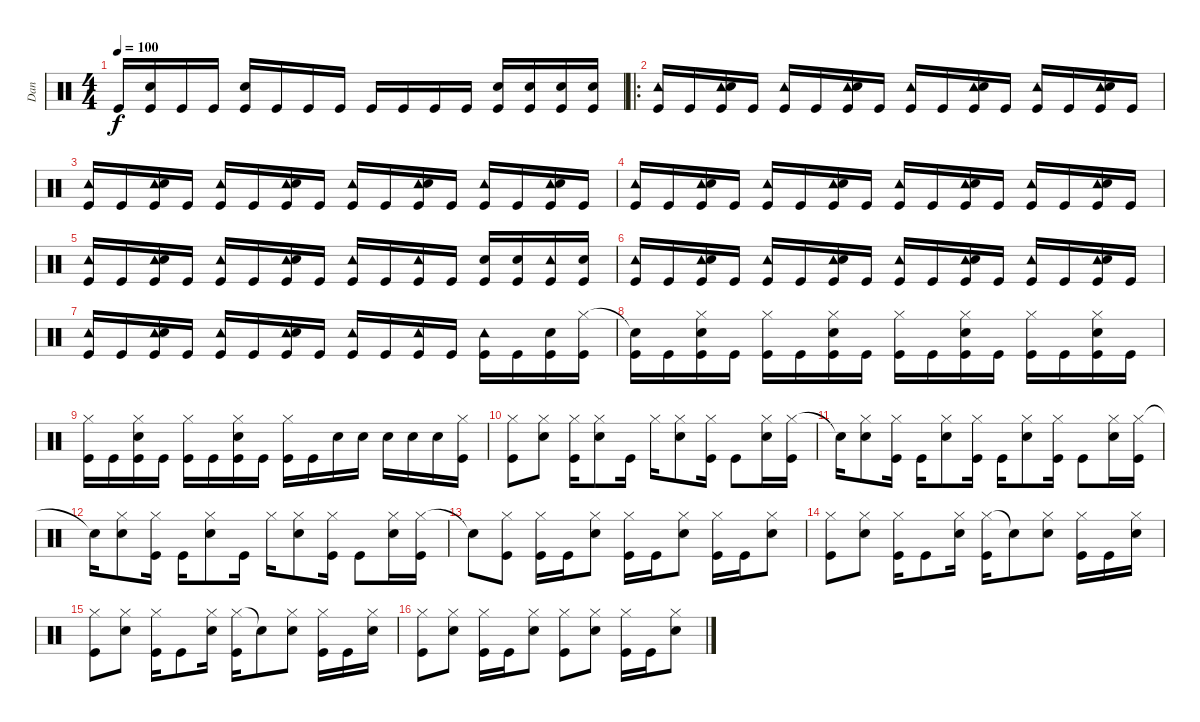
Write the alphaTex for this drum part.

\track ("Dan" "Dan") {instrument percussion}
\staff {score}
\articulation defaults
\ts (4 4)
\tempo 100
\clef neutral
\ks c "Kick (hit)".16{dy f}
("Snare (hit) 2" "Kick (hit)").16 "Kick (hit)".16 "Kick (hit)".16 ("Snare (hit) 2" "Kick (hit)").16 "Kick (hit)".16 "Kick (hit)".16 "Kick (hit)".16 "Kick (hit)".16 "Kick (hit)".16 "Kick (hit)".16 "Kick (hit)".16 ("Snare (hit) 2" "Kick (hit)").16 ("Snare (hit) 2" "Kick (hit)").16 ("Snare (hit) 2" "Kick (hit)").16 ("Snare (hit) 2" "Kick (hit)").16 |
\ro
("Tambourine (hit)" "Kick (hit)").16 "Kick (hit)".16 ("Tambourine (hit)" "Snare (hit) 2" "Kick (hit)").16 "Kick (hit)".16 ("Tambourine (hit)" "Kick (hit)").16 "Kick (hit)".16 ("Tambourine (hit)" "Snare (hit) 2" "Kick (hit)").16 "Kick (hit)".16 ("Tambourine (hit)" "Kick (hit)").16 "Kick (hit)".16 ("Tambourine (hit)" "Snare (hit) 2" "Kick (hit)").16 "Kick (hit)".16 ("Tambourine (hit)" "Kick (hit)").16 "Kick (hit)".16 ("Tambourine (hit)" "Snare (hit) 2" "Kick (hit)").16 "Kick (hit)".16 |
("Tambourine (hit)" "Kick (hit)").16 "Kick (hit)".16 ("Tambourine (hit)" "Snare (hit) 2" "Kick (hit)").16 "Kick (hit)".16 ("Tambourine (hit)" "Kick (hit)").16 "Kick (hit)".16 ("Tambourine (hit)" "Snare (hit) 2" "Kick (hit)").16 "Kick (hit)".16 ("Tambourine (hit)" "Kick (hit)").16 "Kick (hit)".16 ("Tambourine (hit)" "Snare (hit) 2" "Kick (hit)").16 "Kick (hit)".16 ("Tambourine (hit)" "Kick (hit)").16 "Kick (hit)".16 ("Tambourine (hit)" "Snare (hit) 2" "Kick (hit)").16 "Kick (hit)".16 |
("Tambourine (hit)" "Kick (hit)").16 "Kick (hit)".16 ("Tambourine (hit)" "Snare (hit) 2" "Kick (hit)").16 "Kick (hit)".16 ("Tambourine (hit)" "Kick (hit)").16 "Kick (hit)".16 ("Tambourine (hit)" "Snare (hit) 2" "Kick (hit)").16 "Kick (hit)".16 ("Tambourine (hit)" "Kick (hit)").16 "Kick (hit)".16 ("Tambourine (hit)" "Snare (hit) 2" "Kick (hit)").16 "Kick (hit)".16 ("Tambourine (hit)" "Kick (hit)").16 "Kick (hit)".16 ("Tambourine (hit)" "Snare (hit) 2" "Kick (hit)").16 "Kick (hit)".16 |
("Tambourine (hit)" "Kick (hit)").16 "Kick (hit)".16 ("Tambourine (hit)" "Snare (hit) 2" "Kick (hit)").16 "Kick (hit)".16 ("Tambourine (hit)" "Kick (hit)").16 "Kick (hit)".16 ("Tambourine (hit)" "Snare (hit) 2" "Kick (hit)").16 "Kick (hit)".16 ("Tambourine (hit)" "Kick (hit)").16 "Kick (hit)".16 ("Tambourine (hit)" "Kick (hit)").16 "Kick (hit)".16 ("Snare (hit) 2" "Kick (hit)").16 ("Snare (hit) 2" "Kick (hit)").16 ("Tambourine (hit)" "Kick (hit)").16 ("Snare (hit) 2" "Kick (hit)").16 |
("Tambourine (hit)" "Kick (hit)").16 "Kick (hit)".16 ("Tambourine (hit)" "Snare (hit) 2" "Kick (hit)").16 "Kick (hit)".16 ("Tambourine (hit)" "Kick (hit)").16 "Kick (hit)".16 ("Tambourine (hit)" "Snare (hit) 2" "Kick (hit)").16 "Kick (hit)".16 ("Tambourine (hit)" "Kick (hit)").16 "Kick (hit)".16 ("Tambourine (hit)" "Snare (hit) 2" "Kick (hit)").16 "Kick (hit)".16 ("Tambourine (hit)" "Kick (hit)").16 "Kick (hit)".16 ("Tambourine (hit)" "Snare (hit) 2" "Kick (hit)").16 "Kick (hit)".16 |
("Tambourine (hit)" "Kick (hit)").16 "Kick (hit)".16 ("Tambourine (hit)" "Snare (hit) 2" "Kick (hit)").16 "Kick (hit)".16 ("Tambourine (hit)" "Kick (hit)").16 "Kick (hit)".16 ("Tambourine (hit)" "Snare (hit) 2" "Kick (hit)").16 "Kick (hit)".16 ("Tambourine (hit)" "Kick (hit)").16 "Kick (hit)".16 ("Tambourine (hit)" "Kick (hit)").16 "Kick (hit)".16 ("Tambourine (hit)" "Kick (hit)").16 "Kick (hit)".16 ("Snare (hit) 2" "Kick (hit)").16 ("Hi-Hat (closed)" "Kick (hit)").16 |
("Snare (hit)"{t} "Kick (hit)").16 "Kick (hit)".16 ("Hi-Hat (closed)" "Snare (hit) 2" "Kick (hit)").16 "Kick (hit)".16 ("Hi-Hat (closed)" "Kick (hit)").16 "Kick (hit)".16 ("Hi-Hat (closed)" "Snare (hit) 2" "Kick (hit)").16 "Kick (hit)".16 ("Hi-Hat (closed)" "Kick (hit)").16 "Kick (hit)".16 ("Hi-Hat (closed)" "Snare (hit) 2" "Kick (hit)").16 "Kick (hit)".16 ("Hi-Hat (closed)" "Kick (hit)").16 "Kick (hit)".16 ("Hi-Hat (closed)" "Snare (hit) 2" "Kick (hit)").16 "Kick (hit)".16 |
("Hi-Hat (closed)" "Kick (hit)").16 "Kick (hit)".16 ("Hi-Hat (closed)" "Snare (hit) 2" "Kick (hit)").16 "Kick (hit)".16 ("Hi-Hat (closed)" "Kick (hit)").16 "Kick (hit)".16 ("Hi-Hat (closed)" "Snare (hit) 2" "Kick (hit)").16 "Kick (hit)".16 ("Hi-Hat (closed)" "Kick (hit)").16 "Kick (hit)".16 "Snare (hit) 2".16 "Snare (hit) 2".16 "Snare (hit) 2".16 "Snare (hit) 2".16 "Snare (hit) 2".16 ("Hi-Hat (closed)" "Kick (hit)").16 |
("Hi-Hat (closed)" "Kick (hit)").8 ("Hi-Hat (closed)" "Snare (hit) 2").8 ("Hi-Hat (closed)" "Kick (hit)").16 ("Hi-Hat (closed)" "Snare (hit) 2").8 "Kick (hit)".16 "Hi-Hat (closed)".16 ("Hi-Hat (closed)" "Snare (hit) 2").8 ("Hi-Hat (closed)" "Kick (hit)").16 "Kick (hit)".8 ("Hi-Hat (closed)" "Snare (hit) 2").16 ("Hi-Hat (closed)" "Kick (hit)").16 |
"Snare (hit)"{t}.16 ("Hi-Hat (closed)" "Snare (hit) 2").8 ("Hi-Hat (closed)" "Kick (hit)").16 "Kick (hit)".16 ("Hi-Hat (closed)" "Snare (hit) 2").8 ("Hi-Hat (closed)" "Kick (hit)").16 "Kick (hit)".16 ("Hi-Hat (closed)" "Snare (hit) 2").8 ("Hi-Hat (closed)" "Kick (hit)").16 "Kick (hit)".8 ("Hi-Hat (closed)" "Snare (hit) 2").16 ("Hi-Hat (closed)" "Kick (hit)").16 |
"Snare (hit)"{t}.16 ("Hi-Hat (closed)" "Snare (hit) 2").8 ("Hi-Hat (closed)" "Kick (hit)").16 "Kick (hit)".16 ("Hi-Hat (closed)" "Snare (hit) 2").8 "Kick (hit)".16 "Hi-Hat (closed)".16 ("Hi-Hat (closed)" "Snare (hit) 2").8 ("Hi-Hat (closed)" "Kick (hit)").16 "Kick (hit)".8 ("Hi-Hat (closed)" "Snare (hit) 2").16 ("Hi-Hat (closed)" "Kick (hit)").16 |
"Snare (hit)"{t}.8 ("Hi-Hat (closed)" "Kick (hit)").8 ("Hi-Hat (closed)" "Kick (hit)").16 "Kick (hit)".16 ("Hi-Hat (closed)" "Snare (hit) 2").8 ("Hi-Hat (closed)" "Kick (hit)").16 "Kick (hit)".16 ("Hi-Hat (closed)" "Snare (hit) 2").8 ("Hi-Hat (closed)" "Kick (hit)").16 "Kick (hit)".16 ("Hi-Hat (closed)" "Snare (hit) 2").8 |
("Hi-Hat (closed)" "Kick (hit)").8 ("Hi-Hat (closed)" "Snare (hit) 2").8 ("Hi-Hat (closed)" "Kick (hit)").16 "Kick (hit)".8 ("Hi-Hat (closed)" "Snare (hit) 2").16 ("Hi-Hat (closed)" "Kick (hit)").16 "Snare (hit)"{t}.8 ("Hi-Hat (closed)" "Snare (hit) 2").8 ("Hi-Hat (closed)" "Kick (hit)").16 "Kick (hit)".16 ("Hi-Hat (closed)" "Snare (hit) 2").16 |
("Hi-Hat (closed)" "Kick (hit)").8 ("Hi-Hat (closed)" "Snare (hit) 2").8 ("Hi-Hat (closed)" "Kick (hit)").16 "Kick (hit)".8 ("Hi-Hat (closed)" "Snare (hit) 2").16 ("Hi-Hat (closed)" "Kick (hit)").16 "Snare (hit)"{t}.8 ("Hi-Hat (closed)" "Snare (hit) 2").8 ("Hi-Hat (closed)" "Kick (hit)").16 "Kick (hit)".16 ("Hi-Hat (closed)" "Snare (hit) 2").16 |
("Hi-Hat (closed)" "Kick (hit)").8 ("Hi-Hat (closed)" "Snare (hit) 2").8 ("Hi-Hat (closed)" "Kick (hit)").16 "Kick (hit)".16 ("Hi-Hat (closed)" "Snare (hit) 2").8 ("Hi-Hat (closed)" "Kick (hit)").8 ("Hi-Hat (closed)" "Snare (hit) 2").8 ("Hi-Hat (closed)" "Kick (hit)").16 "Kick (hit)".16 ("Hi-Hat (closed)" "Snare (hit) 2").8
